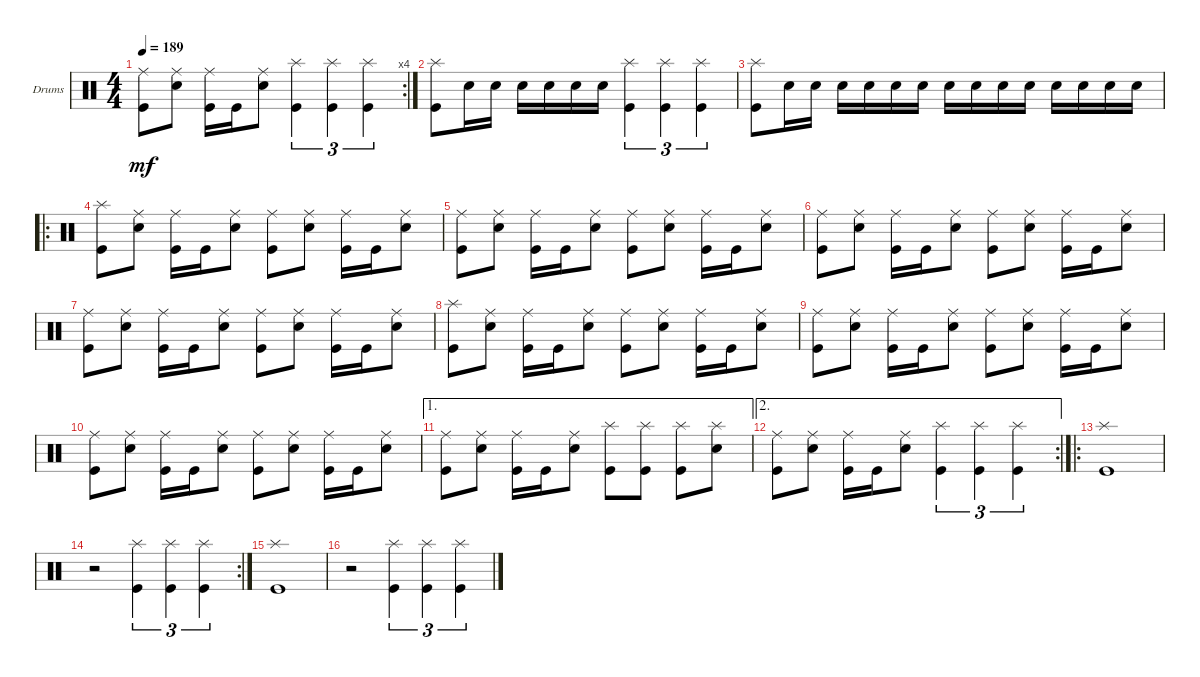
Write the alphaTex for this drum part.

\defaultSystemsLayout 4
\bracketExtendMode groupsimilarinstruments
\firstSystemTrackNameOrientation horizontal
\otherSystemsTrackNameOrientation horizontal
\track ("Drumkit" "Drums") {instrument percussion}
\staff {score}
\articulation defaults
\rc 4
\ts (4 4)
\tempo 189
\clef neutral
\ks c
("Kick (hit)" "Ride (middle)").8{dy mf} ("Snare (hit) 2" "Ride (middle)").8 ("Kick (hit)" "Ride (middle)").16 "Kick (hit)".16 ("Snare (hit) 2" "Ride (middle)").8 ("Kick (hit)" "Splash (hit)").4{tu (3 2)} ("Kick (hit)" "Splash (hit)").4{tu (3 2)} ("Kick (hit)" "Splash (hit)").4{tu (3 2)} |
("Kick (hit)" "Splash (hit)").8 "Snare (hit) 2".16 "Snare (hit) 2".16 "Snare (hit) 2".16 "Snare (hit) 2".16 "Snare (hit) 2".16 "Snare (hit) 2".16 ("Kick (hit)" "Splash (hit)").4{tu (3 2)} ("Kick (hit)" "Splash (hit)").4{tu (3 2)} ("Kick (hit)" "Splash (hit)").4{tu (3 2)} |
("Kick (hit)" "Splash (hit)").8 "Snare (hit) 2".16 "Snare (hit) 2".16 "Snare (hit) 2".16 "Snare (hit) 2".16 "Snare (hit) 2".16 "Snare (hit) 2".16 "Snare (hit) 2".16 "Snare (hit) 2".16 "Snare (hit) 2".16 "Snare (hit) 2".16 "Snare (hit) 2".16 "Snare (hit) 2".16 "Snare (hit) 2".16 "Snare (hit) 2".16 |
\ro
("Kick (hit)" "Splash (hit)").8 ("Snare (hit) 2" "Ride (middle)").8 ("Kick (hit)" "Ride (middle)").16 "Kick (hit)".16 ("Snare (hit) 2" "Ride (middle)").8 ("Kick (hit)" "Ride (middle)").8 ("Snare (hit) 2" "Ride (middle)").8 ("Kick (hit)" "Ride (middle)").16 "Kick (hit)".16 ("Snare (hit) 2" "Ride (middle)").8 |
("Kick (hit)" "Ride (middle)").8 ("Snare (hit) 2" "Ride (middle)").8 ("Kick (hit)" "Ride (middle)").16 "Kick (hit)".16 ("Snare (hit) 2" "Ride (middle)").8 ("Kick (hit)" "Ride (middle)").8 ("Snare (hit) 2" "Ride (middle)").8 ("Kick (hit)" "Ride (middle)").16 "Kick (hit)".16 ("Snare (hit) 2" "Ride (middle)").8 |
("Kick (hit)" "Ride (middle)").8 ("Snare (hit) 2" "Ride (middle)").8 ("Kick (hit)" "Ride (middle)").16 "Kick (hit)".16 ("Snare (hit) 2" "Ride (middle)").8 ("Kick (hit)" "Ride (middle)").8 ("Snare (hit) 2" "Ride (middle)").8 ("Kick (hit)" "Ride (middle)").16 "Kick (hit)".16 ("Snare (hit) 2" "Ride (middle)").8 |
("Kick (hit)" "Ride (middle)").8 ("Snare (hit) 2" "Ride (middle)").8 ("Kick (hit)" "Ride (middle)").16 "Kick (hit)".16 ("Snare (hit) 2" "Ride (middle)").8 ("Kick (hit)" "Ride (middle)").8 ("Snare (hit) 2" "Ride (middle)").8 ("Kick (hit)" "Ride (middle)").16 "Kick (hit)".16 ("Snare (hit) 2" "Ride (middle)").8 |
("Kick (hit)" "Splash (hit)").8 ("Snare (hit) 2" "Ride (middle)").8 ("Kick (hit)" "Ride (middle)").16 "Kick (hit)".16 ("Snare (hit) 2" "Ride (middle)").8 ("Kick (hit)" "Ride (middle)").8 ("Snare (hit) 2" "Ride (middle)").8 ("Kick (hit)" "Ride (middle)").16 "Kick (hit)".16 ("Snare (hit) 2" "Ride (middle)").8 |
("Kick (hit)" "Ride (middle)").8 ("Snare (hit) 2" "Ride (middle)").8 ("Kick (hit)" "Ride (middle)").16 "Kick (hit)".16 ("Snare (hit) 2" "Ride (middle)").8 ("Kick (hit)" "Ride (middle)").8 ("Snare (hit) 2" "Ride (middle)").8 ("Kick (hit)" "Ride (middle)").16 "Kick (hit)".16 ("Snare (hit) 2" "Ride (middle)").8 |
("Kick (hit)" "Ride (middle)").8 ("Snare (hit) 2" "Ride (middle)").8 ("Kick (hit)" "Ride (middle)").16 "Kick (hit)".16 ("Snare (hit) 2" "Ride (middle)").8 ("Kick (hit)" "Ride (middle)").8 ("Snare (hit) 2" "Ride (middle)").8 ("Kick (hit)" "Ride (middle)").16 "Kick (hit)".16 ("Snare (hit) 2" "Ride (middle)").8 |
\ae 1
("Kick (hit)" "Ride (middle)").8 ("Snare (hit) 2" "Ride (middle)").8 ("Kick (hit)" "Ride (middle)").16 "Kick (hit)".16 ("Snare (hit) 2" "Ride (middle)").8 ("Kick (hit)" "Splash (hit)").8 ("Kick (hit)" "Splash (hit)").8 ("Kick (hit)" "Splash (hit)").8 ("Snare (hit) 2" "Splash (hit)").8 |
\ae 2
\rc 2
("Kick (hit)" "Ride (middle)").8 ("Snare (hit) 2" "Ride (middle)").8 ("Kick (hit)" "Ride (middle)").16 "Kick (hit)".16 ("Snare (hit) 2" "Ride (middle)").8 ("Kick (hit)" "Splash (hit)").4{tu (3 2)} ("Kick (hit)" "Splash (hit)").4{tu (3 2)} ("Kick (hit)" "Splash (hit)").4{tu (3 2)} |
\ro
("Kick (hit)" "Splash (hit)").1 |
\rc 2
r.2 ("Kick (hit)" "Splash (hit)").4{tu (3 2)} ("Kick (hit)" "Splash (hit)").4{tu (3 2)} ("Kick (hit)" "Splash (hit)").4{tu (3 2)} |
("Kick (hit)" "Splash (hit)").1 |
r.2 ("Kick (hit)" "Splash (hit)").4{tu (3 2)} ("Kick (hit)" "Splash (hit)").4{tu (3 2)} ("Kick (hit)" "Splash (hit)").4{tu (3 2)}
